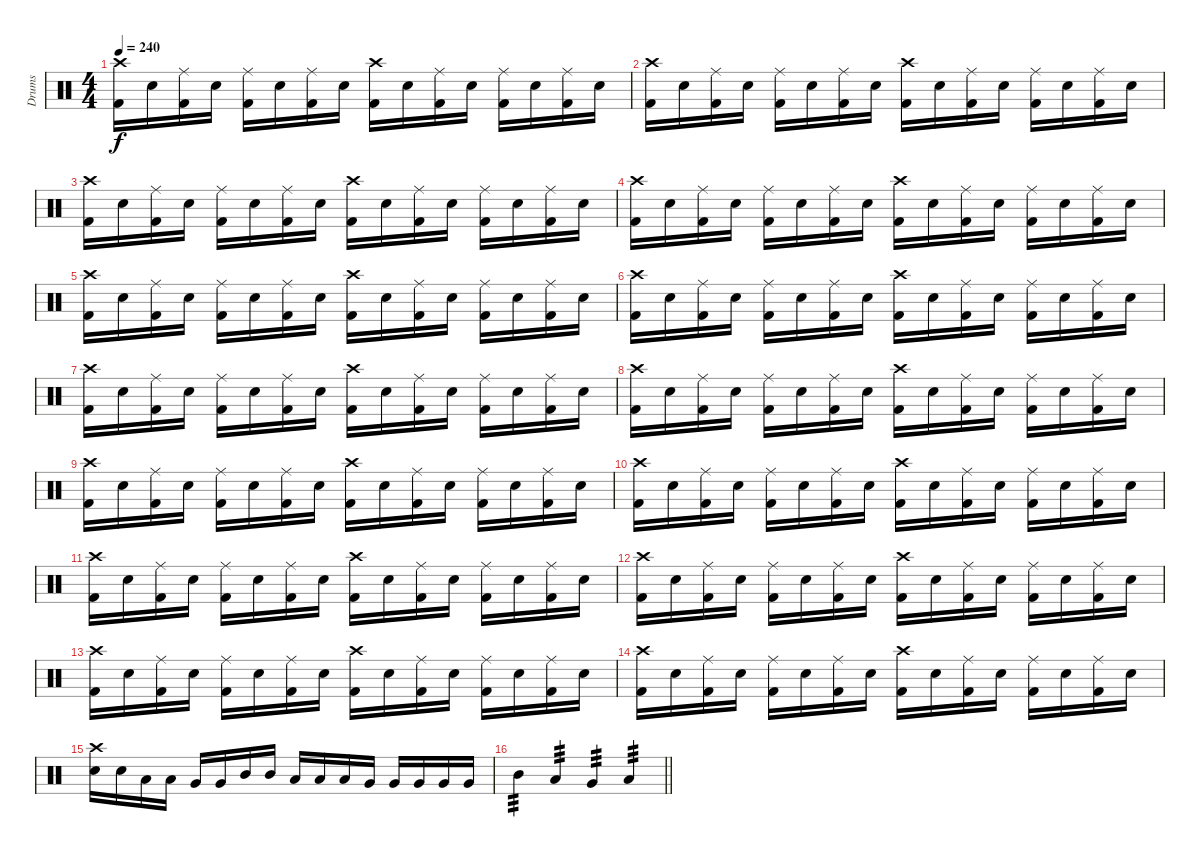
\track ("Drums" "Drums") {instrument percussion}
\staff {score}
\articulation defaults
\ts (4 4)
\tempo 240
\clef neutral
\ks c
("Crash high (hit)" "Kick (hit) 2").16{dy f} "Electric Snare (hit)".16 ("Ride (middle)" "Kick (hit) 2").16 "Electric Snare (hit)".16 ("Ride (middle)" "Kick (hit) 2").16 "Electric Snare (hit)".16 ("Ride (middle)" "Kick (hit) 2").16 "Electric Snare (hit)".16 ("Crash high (hit)" "Kick (hit) 2").16 "Electric Snare (hit)".16 ("Ride (middle)" "Kick (hit) 2").16 "Electric Snare (hit)".16 ("Ride (middle)" "Kick (hit) 2").16 "Electric Snare (hit)".16 ("Ride (middle)" "Kick (hit) 2").16 "Electric Snare (hit)".16 |
("Crash high (hit)" "Kick (hit) 2").16 "Electric Snare (hit)".16 ("Ride (middle)" "Kick (hit) 2").16 "Electric Snare (hit)".16 ("Ride (middle)" "Kick (hit) 2").16 "Electric Snare (hit)".16 ("Ride (middle)" "Kick (hit) 2").16 "Electric Snare (hit)".16 ("Crash high (hit)" "Kick (hit) 2").16 "Electric Snare (hit)".16 ("Ride (middle)" "Kick (hit) 2").16 "Electric Snare (hit)".16 ("Ride (middle)" "Kick (hit) 2").16 "Electric Snare (hit)".16 ("Ride (middle)" "Kick (hit) 2").16 "Electric Snare (hit)".16 |
("Crash high (hit)" "Kick (hit) 2").16 "Electric Snare (hit)".16 ("Ride (middle)" "Kick (hit) 2").16 "Electric Snare (hit)".16 ("Ride (middle)" "Kick (hit) 2").16 "Electric Snare (hit)".16 ("Ride (middle)" "Kick (hit) 2").16 "Electric Snare (hit)".16 ("Crash high (hit)" "Kick (hit) 2").16 "Electric Snare (hit)".16 ("Ride (middle)" "Kick (hit) 2").16 "Electric Snare (hit)".16 ("Ride (middle)" "Kick (hit) 2").16 "Electric Snare (hit)".16 ("Ride (middle)" "Kick (hit) 2").16 "Electric Snare (hit)".16 |
("Crash high (hit)" "Kick (hit) 2").16 "Electric Snare (hit)".16 ("Ride (middle)" "Kick (hit) 2").16 "Electric Snare (hit)".16 ("Ride (middle)" "Kick (hit) 2").16 "Electric Snare (hit)".16 ("Ride (middle)" "Kick (hit) 2").16 "Electric Snare (hit)".16 ("Crash high (hit)" "Kick (hit) 2").16 "Electric Snare (hit)".16 ("Ride (middle)" "Kick (hit) 2").16 "Electric Snare (hit)".16 ("Ride (middle)" "Kick (hit) 2").16 "Electric Snare (hit)".16 ("Ride (middle)" "Kick (hit) 2").16 "Electric Snare (hit)".16 |
("Crash high (hit)" "Kick (hit) 2").16 "Electric Snare (hit)".16 ("Ride (middle)" "Kick (hit) 2").16 "Electric Snare (hit)".16 ("Ride (middle)" "Kick (hit) 2").16 "Electric Snare (hit)".16 ("Ride (middle)" "Kick (hit) 2").16 "Electric Snare (hit)".16 ("Crash high (hit)" "Kick (hit) 2").16 "Electric Snare (hit)".16 ("Ride (middle)" "Kick (hit) 2").16 "Electric Snare (hit)".16 ("Ride (middle)" "Kick (hit) 2").16 "Electric Snare (hit)".16 ("Ride (middle)" "Kick (hit) 2").16 "Electric Snare (hit)".16 |
("Crash high (hit)" "Kick (hit) 2").16 "Electric Snare (hit)".16 ("Ride (middle)" "Kick (hit) 2").16 "Electric Snare (hit)".16 ("Ride (middle)" "Kick (hit) 2").16 "Electric Snare (hit)".16 ("Ride (middle)" "Kick (hit) 2").16 "Electric Snare (hit)".16 ("Crash high (hit)" "Kick (hit) 2").16 "Electric Snare (hit)".16 ("Ride (middle)" "Kick (hit) 2").16 "Electric Snare (hit)".16 ("Ride (middle)" "Kick (hit) 2").16 "Electric Snare (hit)".16 ("Ride (middle)" "Kick (hit) 2").16 "Electric Snare (hit)".16 |
("Crash high (hit)" "Kick (hit) 2").16 "Electric Snare (hit)".16 ("Ride (middle)" "Kick (hit) 2").16 "Electric Snare (hit)".16 ("Ride (middle)" "Kick (hit) 2").16 "Electric Snare (hit)".16 ("Ride (middle)" "Kick (hit) 2").16 "Electric Snare (hit)".16 ("Crash high (hit)" "Kick (hit) 2").16 "Electric Snare (hit)".16 ("Ride (middle)" "Kick (hit) 2").16 "Electric Snare (hit)".16 ("Ride (middle)" "Kick (hit) 2").16 "Electric Snare (hit)".16 ("Ride (middle)" "Kick (hit) 2").16 "Electric Snare (hit)".16 |
("Crash high (hit)" "Kick (hit) 2").16 "Electric Snare (hit)".16 ("Ride (middle)" "Kick (hit) 2").16 "Electric Snare (hit)".16 ("Ride (middle)" "Kick (hit) 2").16 "Electric Snare (hit)".16 ("Ride (middle)" "Kick (hit) 2").16 "Electric Snare (hit)".16 ("Crash high (hit)" "Kick (hit) 2").16 "Electric Snare (hit)".16 ("Ride (middle)" "Kick (hit) 2").16 "Electric Snare (hit)".16 ("Ride (middle)" "Kick (hit) 2").16 "Electric Snare (hit)".16 ("Ride (middle)" "Kick (hit) 2").16 "Electric Snare (hit)".16 |
("Crash high (hit)" "Kick (hit) 2").16 "Electric Snare (hit)".16 ("Ride (middle)" "Kick (hit) 2").16 "Electric Snare (hit)".16 ("Ride (middle)" "Kick (hit) 2").16 "Electric Snare (hit)".16 ("Ride (middle)" "Kick (hit) 2").16 "Electric Snare (hit)".16 ("Crash high (hit)" "Kick (hit) 2").16 "Electric Snare (hit)".16 ("Ride (middle)" "Kick (hit) 2").16 "Electric Snare (hit)".16 ("Ride (middle)" "Kick (hit) 2").16 "Electric Snare (hit)".16 ("Ride (middle)" "Kick (hit) 2").16 "Electric Snare (hit)".16 |
("Crash high (hit)" "Kick (hit) 2").16 "Electric Snare (hit)".16 ("Ride (middle)" "Kick (hit) 2").16 "Electric Snare (hit)".16 ("Ride (middle)" "Kick (hit) 2").16 "Electric Snare (hit)".16 ("Ride (middle)" "Kick (hit) 2").16 "Electric Snare (hit)".16 ("Crash high (hit)" "Kick (hit) 2").16 "Electric Snare (hit)".16 ("Ride (middle)" "Kick (hit) 2").16 "Electric Snare (hit)".16 ("Ride (middle)" "Kick (hit) 2").16 "Electric Snare (hit)".16 ("Ride (middle)" "Kick (hit) 2").16 "Electric Snare (hit)".16 |
("Crash high (hit)" "Kick (hit) 2").16 "Electric Snare (hit)".16 ("Ride (middle)" "Kick (hit) 2").16 "Electric Snare (hit)".16 ("Ride (middle)" "Kick (hit) 2").16 "Electric Snare (hit)".16 ("Ride (middle)" "Kick (hit) 2").16 "Electric Snare (hit)".16 ("Crash high (hit)" "Kick (hit) 2").16 "Electric Snare (hit)".16 ("Ride (middle)" "Kick (hit) 2").16 "Electric Snare (hit)".16 ("Ride (middle)" "Kick (hit) 2").16 "Electric Snare (hit)".16 ("Ride (middle)" "Kick (hit) 2").16 "Electric Snare (hit)".16 |
("Crash high (hit)" "Kick (hit) 2").16 "Electric Snare (hit)".16 ("Ride (middle)" "Kick (hit) 2").16 "Electric Snare (hit)".16 ("Ride (middle)" "Kick (hit) 2").16 "Electric Snare (hit)".16 ("Ride (middle)" "Kick (hit) 2").16 "Electric Snare (hit)".16 ("Crash high (hit)" "Kick (hit) 2").16 "Electric Snare (hit)".16 ("Ride (middle)" "Kick (hit) 2").16 "Electric Snare (hit)".16 ("Ride (middle)" "Kick (hit) 2").16 "Electric Snare (hit)".16 ("Ride (middle)" "Kick (hit) 2").16 "Electric Snare (hit)".16 |
("Crash high (hit)" "Kick (hit) 2").16 "Electric Snare (hit)".16 ("Ride (middle)" "Kick (hit) 2").16 "Electric Snare (hit)".16 ("Ride (middle)" "Kick (hit) 2").16 "Electric Snare (hit)".16 ("Ride (middle)" "Kick (hit) 2").16 "Electric Snare (hit)".16 ("Crash high (hit)" "Kick (hit) 2").16 "Electric Snare (hit)".16 ("Ride (middle)" "Kick (hit) 2").16 "Electric Snare (hit)".16 ("Ride (middle)" "Kick (hit) 2").16 "Electric Snare (hit)".16 ("Ride (middle)" "Kick (hit) 2").16 "Electric Snare (hit)".16 |
("Crash high (hit)" "Kick (hit) 2").16 "Electric Snare (hit)".16 ("Ride (middle)" "Kick (hit) 2").16 "Electric Snare (hit)".16 ("Ride (middle)" "Kick (hit) 2").16 "Electric Snare (hit)".16 ("Ride (middle)" "Kick (hit) 2").16 "Electric Snare (hit)".16 ("Crash high (hit)" "Kick (hit) 2").16 "Electric Snare (hit)".16 ("Ride (middle)" "Kick (hit) 2").16 "Electric Snare (hit)".16 ("Ride (middle)" "Kick (hit) 2").16 "Electric Snare (hit)".16 ("Ride (middle)" "Kick (hit) 2").16 "Electric Snare (hit)".16 |
("Crash high (hit)" "Snare (hit) 2").16 "Snare (hit) 2".16 "Low Tom (hit)".16 "Low Tom (hit)".16 "Very Low Tom (hit)".16 "Very Low Tom (hit)".16 "Mid Tom (hit)".16 "Mid Tom (hit)".16 "Low Tom (hit)".16 "Low Tom (hit)".16 "Low Tom (hit)".16 "Very Low Tom (hit)".16 "Very Low Tom (hit)".16 "Very Low Tom (hit)".16 "Very Low Tom (hit)".16 "Very Low Tom (hit)".16 |
\barLineRight lightlight "Mid Tom (hit)".4{tp 3} "Low Tom (hit)".4{tp 3} "Very Low Tom (hit)".4{tp 3} "Low Floor Tom (hit)".4{tp 3}
